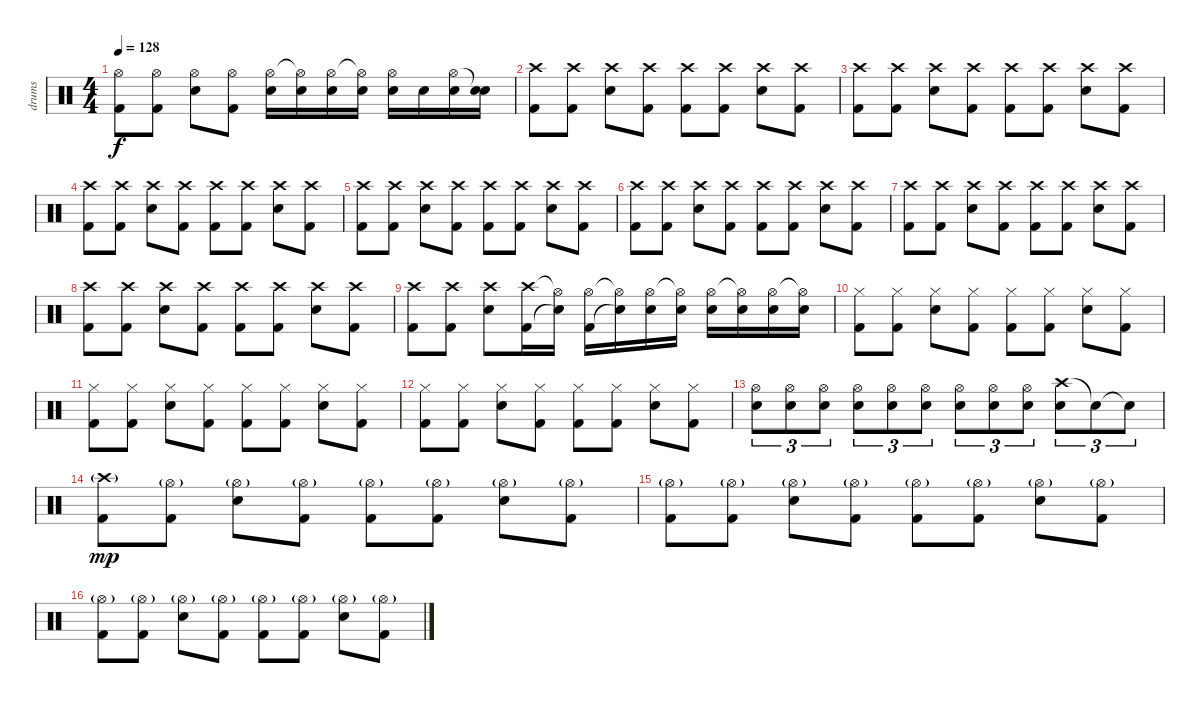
\track ("drums" "drums") {instrument percussion}
\staff {score}
\articulation defaults
\ts (4 4)
\tempo 128
\clef neutral
\ks c
("Hi-Hat (open)" "Kick (hit) 2").8{dy f} ("Hi-Hat (open)" "Kick (hit) 2").8 ("Hi-Hat (open)" "Electric Snare (hit)").8 ("Hi-Hat (open)" "Kick (hit) 2").8 ("Hi-Hat (open)" "Electric Snare (hit)").16 ("Hi-Hat (open)"{t} "Electric Snare (hit)").16 ("Hi-Hat (open)" "Electric Snare (hit)").16 ("Hi-Hat (open)"{t} "Electric Snare (hit)").16 ("Hi-Hat (open)" "Electric Snare (hit)").16 "Electric Snare (hit)".16 ("Hi-Hat (open)" "Electric Snare (hit)").16 ("Snare (hit)"{t} "Electric Snare (hit)").16 |
("Crash high (hit)" "Kick (hit) 2").8 ("Crash high (hit)" "Kick (hit) 2").8 ("Crash high (hit)" "Electric Snare (hit)").8 ("Crash high (hit)" "Kick (hit) 2").8 ("Crash high (hit)" "Kick (hit) 2").8 ("Crash high (hit)" "Kick (hit) 2").8 ("Crash high (hit)" "Electric Snare (hit)").8 ("Crash high (hit)" "Kick (hit) 2").8 |
("Crash high (hit)" "Kick (hit) 2").8 ("Crash high (hit)" "Kick (hit) 2").8 ("Crash high (hit)" "Electric Snare (hit)").8 ("Crash high (hit)" "Kick (hit) 2").8 ("Crash high (hit)" "Kick (hit) 2").8 ("Crash high (hit)" "Kick (hit) 2").8 ("Crash high (hit)" "Electric Snare (hit)").8 ("Crash high (hit)" "Kick (hit) 2").8 |
("Crash high (hit)" "Kick (hit) 2").8 ("Crash high (hit)" "Kick (hit) 2").8 ("Crash high (hit)" "Electric Snare (hit)").8 ("Crash high (hit)" "Kick (hit) 2").8 ("Crash high (hit)" "Kick (hit) 2").8 ("Crash high (hit)" "Kick (hit) 2").8 ("Crash high (hit)" "Electric Snare (hit)").8 ("Crash high (hit)" "Kick (hit) 2").8 |
("Crash high (hit)" "Kick (hit) 2").8 ("Crash high (hit)" "Kick (hit) 2").8 ("Crash high (hit)" "Electric Snare (hit)").8 ("Crash high (hit)" "Kick (hit) 2").8 ("Crash high (hit)" "Kick (hit) 2").8 ("Crash high (hit)" "Kick (hit) 2").8 ("Crash high (hit)" "Electric Snare (hit)").8 ("Crash high (hit)" "Kick (hit) 2").8 |
("Crash high (hit)" "Kick (hit) 2").8 ("Crash high (hit)" "Kick (hit) 2").8 ("Crash high (hit)" "Electric Snare (hit)").8 ("Crash high (hit)" "Kick (hit) 2").8 ("Crash high (hit)" "Kick (hit) 2").8 ("Crash high (hit)" "Kick (hit) 2").8 ("Crash high (hit)" "Electric Snare (hit)").8 ("Crash high (hit)" "Kick (hit) 2").8 |
("Crash high (hit)" "Kick (hit) 2").8 ("Crash high (hit)" "Kick (hit) 2").8 ("Crash high (hit)" "Electric Snare (hit)").8 ("Crash high (hit)" "Kick (hit) 2").8 ("Crash high (hit)" "Kick (hit) 2").8 ("Crash high (hit)" "Kick (hit) 2").8 ("Crash high (hit)" "Electric Snare (hit)").8 ("Crash high (hit)" "Kick (hit) 2").8 |
("Crash high (hit)" "Kick (hit) 2").8 ("Crash high (hit)" "Kick (hit) 2").8 ("Crash high (hit)" "Electric Snare (hit)").8 ("Crash high (hit)" "Kick (hit) 2").8 ("Crash high (hit)" "Kick (hit) 2").8 ("Crash high (hit)" "Kick (hit) 2").8 ("Crash high (hit)" "Electric Snare (hit)").8 ("Crash high (hit)" "Kick (hit) 2").8 |
("Crash high (hit)" "Kick (hit) 2").8 ("Crash high (hit)" "Kick (hit) 2").8 ("Crash high (hit)" "Electric Snare (hit)").8 ("Crash high (hit)" "Kick (hit) 2").16 ("Hi-Hat (open)"{t} "Electric Snare (hit)"{t}).16 ("Hi-Hat (open)" "Kick (hit) 2").16 ("Hi-Hat (open)"{t} "Electric Snare (hit)"{t}).16 ("Hi-Hat (open)" "Electric Snare (hit)").16 ("Hi-Hat (open)"{t} "Electric Snare (hit)").16 ("Hi-Hat (open)" "Electric Snare (hit)").16 ("Hi-Hat (open)"{t} "Electric Snare (hit)").16 ("Hi-Hat (open)" "Electric Snare (hit)").16 ("Hi-Hat (open)"{t} "Electric Snare (hit)").16 |
("Hi-Hat (closed)" "Kick (hit) 2").8 ("Hi-Hat (closed)" "Kick (hit) 2").8 ("Hi-Hat (closed)" "Electric Snare (hit)").8 ("Hi-Hat (closed)" "Kick (hit) 2").8 ("Hi-Hat (closed)" "Kick (hit) 2").8 ("Hi-Hat (closed)" "Kick (hit) 2").8 ("Hi-Hat (closed)" "Electric Snare (hit)").8 ("Hi-Hat (closed)" "Kick (hit) 2").8 |
("Hi-Hat (closed)" "Kick (hit) 2").8 ("Hi-Hat (closed)" "Kick (hit) 2").8 ("Hi-Hat (closed)" "Electric Snare (hit)").8 ("Hi-Hat (closed)" "Kick (hit) 2").8 ("Hi-Hat (closed)" "Kick (hit) 2").8 ("Hi-Hat (closed)" "Kick (hit) 2").8 ("Hi-Hat (closed)" "Electric Snare (hit)").8 ("Hi-Hat (closed)" "Kick (hit) 2").8 |
("Hi-Hat (closed)" "Kick (hit) 2").8 ("Hi-Hat (closed)" "Kick (hit) 2").8 ("Hi-Hat (closed)" "Electric Snare (hit)").8 ("Hi-Hat (closed)" "Kick (hit) 2").8 ("Hi-Hat (closed)" "Kick (hit) 2").8 ("Hi-Hat (closed)" "Kick (hit) 2").8 ("Hi-Hat (closed)" "Electric Snare (hit)").8 ("Hi-Hat (closed)" "Kick (hit) 2").8 |
("Hi-Hat (open)" "Electric Snare (hit)").8{tu (3 2)} ("Hi-Hat (open)" "Electric Snare (hit)").8{tu (3 2)} ("Hi-Hat (open)" "Electric Snare (hit)").8{tu (3 2)} ("Hi-Hat (open)" "Electric Snare (hit)").8{tu (3 2)} ("Hi-Hat (open)" "Electric Snare (hit)").8{tu (3 2)} ("Hi-Hat (open)" "Electric Snare (hit)").8{tu (3 2)} ("Hi-Hat (open)" "Electric Snare (hit)").8{tu (3 2)} ("Hi-Hat (open)" "Electric Snare (hit)").8{tu (3 2)} ("Hi-Hat (open)" "Electric Snare (hit)").8{tu (3 2)} ("Crash high (hit)" "Electric Snare (hit)").8{tu (3 2)} "Snare (hit)"{t}.8{tu (3 2)} "Snare (hit)"{t}.8{tu (3 2)} |
("Crash high (hit)"{g} "Kick (hit) 2").8{dy mp} ("Hi-Hat (open)"{g} "Kick (hit) 2").8 ("Hi-Hat (open)"{g} "Electric Snare (hit)").8 ("Hi-Hat (open)"{g} "Kick (hit) 2").8 ("Hi-Hat (open)"{g} "Kick (hit) 2").8 ("Hi-Hat (open)"{g} "Kick (hit) 2").8 ("Hi-Hat (open)"{g} "Electric Snare (hit)").8 ("Hi-Hat (open)"{g} "Kick (hit) 2").8 |
("Hi-Hat (open)"{g} "Kick (hit) 2").8 ("Hi-Hat (open)"{g} "Kick (hit) 2").8 ("Hi-Hat (open)"{g} "Electric Snare (hit)").8 ("Hi-Hat (open)"{g} "Kick (hit) 2").8 ("Hi-Hat (open)"{g} "Kick (hit) 2").8 ("Hi-Hat (open)"{g} "Kick (hit) 2").8 ("Hi-Hat (open)"{g} "Electric Snare (hit)").8 ("Hi-Hat (open)"{g} "Kick (hit) 2").8 |
("Hi-Hat (open)"{g} "Kick (hit) 2").8 ("Hi-Hat (open)"{g} "Kick (hit) 2").8 ("Hi-Hat (open)"{g} "Electric Snare (hit)").8 ("Hi-Hat (open)"{g} "Kick (hit) 2").8 ("Hi-Hat (open)"{g} "Kick (hit) 2").8 ("Hi-Hat (open)"{g} "Kick (hit) 2").8 ("Hi-Hat (open)"{g} "Electric Snare (hit)").8 ("Hi-Hat (open)"{g} "Kick (hit) 2").8
